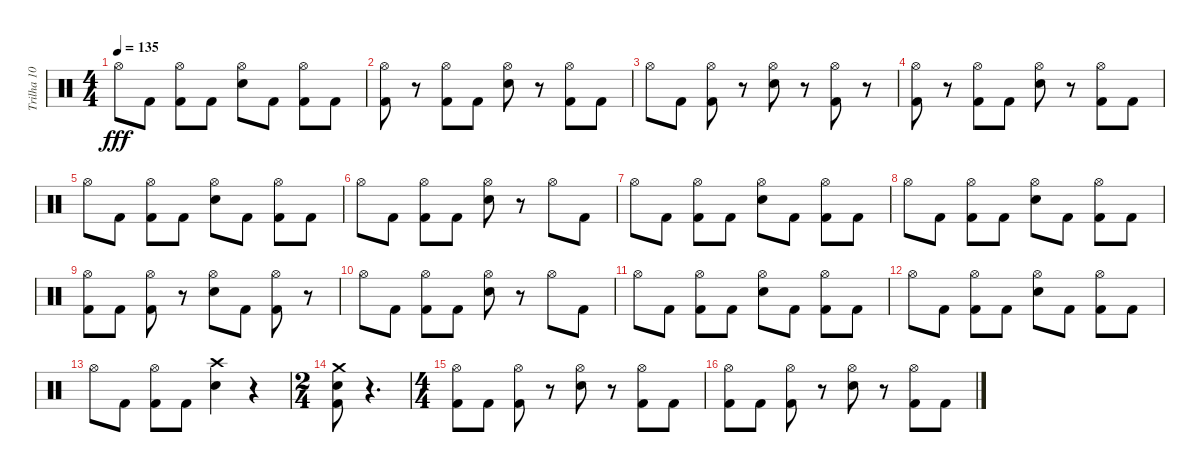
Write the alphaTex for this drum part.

\track ("Trilha 10" "Trilha 10") {instrument percussion}
\staff {score}
\articulation defaults
\ts (4 4)
\tempo 135
\clef neutral
\ks c "Hi-Hat (open)".8{dy fff} "Kick (hit) 2".8
("Hi-Hat (open)" "Kick (hit) 2").8 "Kick (hit) 2".8 ("Hi-Hat (open)" "Electric Snare (hit)").8 "Kick (hit) 2".8 ("Hi-Hat (open)" "Kick (hit) 2").8 "Kick (hit) 2".8 |
("Hi-Hat (open)" "Kick (hit) 2").8 r.8 ("Hi-Hat (open)" "Kick (hit) 2").8 "Kick (hit) 2".8 ("Hi-Hat (open)" "Electric Snare (hit)").8 r.8 ("Hi-Hat (open)" "Kick (hit) 2").8 "Kick (hit) 2".8 |
"Hi-Hat (open)".8 "Kick (hit) 2".8 ("Hi-Hat (open)" "Kick (hit) 2").8 r.8 ("Hi-Hat (open)" "Electric Snare (hit)").8 r.8 ("Hi-Hat (open)" "Kick (hit) 2").8 r.8 |
("Hi-Hat (open)" "Kick (hit) 2").8 r.8 ("Hi-Hat (open)" "Kick (hit) 2").8 "Kick (hit) 2".8 ("Electric Snare (hit)" "Hi-Hat (open)").8 r.8 ("Kick (hit) 2" "Hi-Hat (open)").8 "Kick (hit) 2".8 |
"Hi-Hat (open)".8 "Kick (hit) 2".8 ("Hi-Hat (open)" "Kick (hit) 2").8 "Kick (hit) 2".8 ("Hi-Hat (open)" "Electric Snare (hit)").8 "Kick (hit) 2".8 ("Hi-Hat (open)" "Kick (hit) 2").8 "Kick (hit) 2".8 |
"Hi-Hat (open)".8 "Kick (hit) 2".8 ("Hi-Hat (open)" "Kick (hit) 2").8 "Kick (hit) 2".8 ("Hi-Hat (open)" "Electric Snare (hit)").8 r.8 "Hi-Hat (open)".8 "Kick (hit) 2".8 |
"Hi-Hat (open)".8 "Kick (hit) 2".8 ("Kick (hit) 2" "Hi-Hat (open)").8 "Kick (hit) 2".8 ("Electric Snare (hit)" "Hi-Hat (open)").8 "Kick (hit) 2".8 ("Kick (hit) 2" "Hi-Hat (open)").8 "Kick (hit) 2".8 |
"Hi-Hat (open)".8 "Kick (hit) 2".8 ("Hi-Hat (open)" "Kick (hit) 2").8 "Kick (hit) 2".8 ("Hi-Hat (open)" "Electric Snare (hit)").8 "Kick (hit) 2".8 ("Hi-Hat (open)" "Kick (hit) 2").8 "Kick (hit) 2".8 |
("Hi-Hat (open)" "Kick (hit) 2").8 "Kick (hit) 2".8 ("Hi-Hat (open)" "Kick (hit) 2").8 r.8 ("Hi-Hat (open)" "Electric Snare (hit)").8 "Kick (hit) 2".8 ("Hi-Hat (open)" "Kick (hit) 2").8 r.8 |
"Hi-Hat (open)".8 "Kick (hit) 2".8 ("Hi-Hat (open)" "Kick (hit) 2").8 "Kick (hit) 2".8 ("Hi-Hat (open)" "Electric Snare (hit)").8 r.8 "Hi-Hat (open)".8 "Kick (hit) 2".8 |
"Hi-Hat (open)".8 "Kick (hit) 2".8 ("Hi-Hat (open)" "Kick (hit) 2").8 "Kick (hit) 2".8 ("Hi-Hat (open)" "Electric Snare (hit)").8 "Kick (hit) 2".8 ("Hi-Hat (open)" "Kick (hit) 2").8 "Kick (hit) 2".8 |
"Hi-Hat (open)".8 "Kick (hit) 2".8 ("Hi-Hat (open)" "Kick (hit) 2").8 "Kick (hit) 2".8 ("Hi-Hat (open)" "Electric Snare (hit)").8 "Kick (hit) 2".8 ("Hi-Hat (open)" "Kick (hit) 2").8 "Kick (hit) 2".8 |
"Hi-Hat (open)".8 "Kick (hit) 2".8 ("Hi-Hat (open)" "Kick (hit) 2").8 "Kick (hit) 2".8 ("Crash high (hit)" "Electric Snare (hit)").4 r.4 |
\ts (2 4)
("Crash medium (hit)" "Electric Snare (hit)" "Kick (hit) 2").8 r.4{d} |
\ts (4 4)
("Kick (hit) 2" "Hi-Hat (open)").8 "Kick (hit) 2".8 ("Kick (hit) 2" "Hi-Hat (open)").8 r.8 ("Electric Snare (hit)" "Hi-Hat (open)").8 r.8 ("Kick (hit) 2" "Hi-Hat (open)").8 "Kick (hit) 2".8 |
("Kick (hit) 2" "Hi-Hat (open)").8 "Kick (hit) 2".8 ("Kick (hit) 2" "Hi-Hat (open)").8 r.8 ("Electric Snare (hit)" "Hi-Hat (open)").8 r.8 ("Kick (hit) 2" "Hi-Hat (open)").8 "Kick (hit) 2".8
